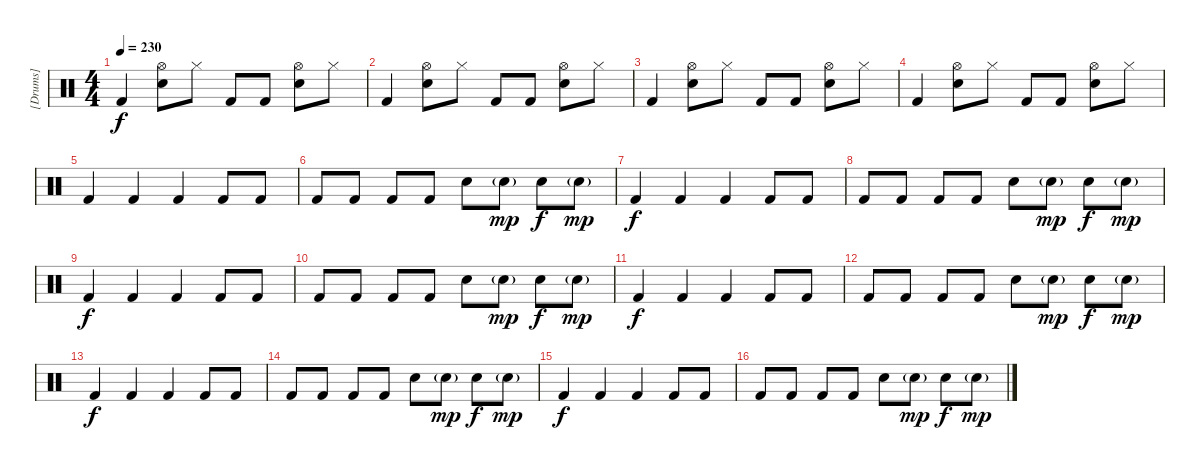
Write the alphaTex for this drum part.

\track ("[Drums]" "[Drums]") {instrument percussion}
\staff {score}
\articulation defaults
\ts (4 4)
\tempo 230
\clef neutral
\ks c "Kick (hit) 2".4{dy f}
("Hi-Hat (open)" "Electric Snare (hit)").8 "Hi-Hat (closed)".8 "Kick (hit) 2".8 "Kick (hit) 2".8 ("Hi-Hat (open)" "Electric Snare (hit)").8 "Hi-Hat (closed)".8 |
"Kick (hit) 2".4 ("Hi-Hat (open)" "Electric Snare (hit)").8 "Hi-Hat (closed)".8 "Kick (hit) 2".8 "Kick (hit) 2".8 ("Hi-Hat (open)" "Electric Snare (hit)").8 "Hi-Hat (closed)".8 |
"Kick (hit) 2".4 ("Hi-Hat (open)" "Electric Snare (hit)").8 "Hi-Hat (closed)".8 "Kick (hit) 2".8 "Kick (hit) 2".8 ("Hi-Hat (open)" "Electric Snare (hit)").8 "Hi-Hat (closed)".8 |
"Kick (hit) 2".4 ("Hi-Hat (open)" "Electric Snare (hit)").8 "Hi-Hat (closed)".8 "Kick (hit) 2".8 "Kick (hit) 2".8 ("Hi-Hat (open)" "Electric Snare (hit)").8 "Hi-Hat (closed)".8 |
"Kick (hit) 2".4 "Kick (hit) 2".4 "Kick (hit) 2".4 "Kick (hit) 2".8 "Kick (hit) 2".8 |
"Kick (hit) 2".8 "Kick (hit) 2".8 "Kick (hit) 2".8 "Kick (hit) 2".8 "Electric Snare (hit)".8 "Electric Snare (hit)"{g}.8{dy mp} "Electric Snare (hit)".8{dy f} "Electric Snare (hit)"{g}.8{dy mp} |
"Kick (hit) 2".4{dy f} "Kick (hit) 2".4 "Kick (hit) 2".4 "Kick (hit) 2".8 "Kick (hit) 2".8 |
"Kick (hit) 2".8 "Kick (hit) 2".8 "Kick (hit) 2".8 "Kick (hit) 2".8 "Electric Snare (hit)".8 "Electric Snare (hit)"{g}.8{dy mp} "Electric Snare (hit)".8{dy f} "Electric Snare (hit)"{g}.8{dy mp} |
"Kick (hit) 2".4{dy f} "Kick (hit) 2".4 "Kick (hit) 2".4 "Kick (hit) 2".8 "Kick (hit) 2".8 |
"Kick (hit) 2".8 "Kick (hit) 2".8 "Kick (hit) 2".8 "Kick (hit) 2".8 "Electric Snare (hit)".8 "Electric Snare (hit)"{g}.8{dy mp} "Electric Snare (hit)".8{dy f} "Electric Snare (hit)"{g}.8{dy mp} |
"Kick (hit) 2".4{dy f} "Kick (hit) 2".4 "Kick (hit) 2".4 "Kick (hit) 2".8 "Kick (hit) 2".8 |
"Kick (hit) 2".8 "Kick (hit) 2".8 "Kick (hit) 2".8 "Kick (hit) 2".8 "Electric Snare (hit)".8 "Electric Snare (hit)"{g}.8{dy mp} "Electric Snare (hit)".8{dy f} "Electric Snare (hit)"{g}.8{dy mp} |
"Kick (hit) 2".4{dy f} "Kick (hit) 2".4 "Kick (hit) 2".4 "Kick (hit) 2".8 "Kick (hit) 2".8 |
"Kick (hit) 2".8 "Kick (hit) 2".8 "Kick (hit) 2".8 "Kick (hit) 2".8 "Electric Snare (hit)".8 "Electric Snare (hit)"{g}.8{dy mp} "Electric Snare (hit)".8{dy f} "Electric Snare (hit)"{g}.8{dy mp} |
"Kick (hit) 2".4{dy f} "Kick (hit) 2".4 "Kick (hit) 2".4 "Kick (hit) 2".8 "Kick (hit) 2".8 |
"Kick (hit) 2".8 "Kick (hit) 2".8 "Kick (hit) 2".8 "Kick (hit) 2".8 "Electric Snare (hit)".8 "Electric Snare (hit)"{g}.8{dy mp} "Electric Snare (hit)".8{dy f} "Electric Snare (hit)"{g}.8{dy mp}
